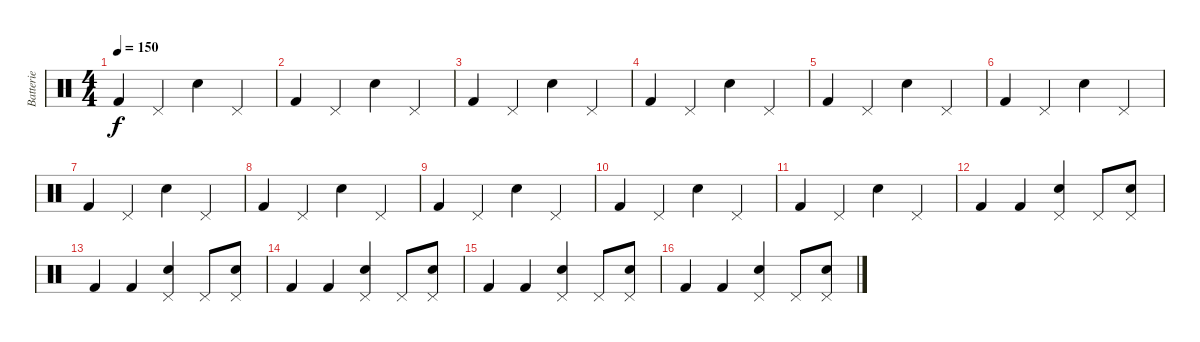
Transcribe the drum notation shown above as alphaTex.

\track ("Batterie" "Batterie") {instrument percussion}
\staff {score}
\articulation defaults
\ts (4 4)
\tempo 150
\clef neutral
\ks c "Kick (hit) 2".4{dy f} "Pedal Hi-Hat (hit)".4 "Electric Snare (hit)".4 "Pedal Hi-Hat (hit)".4
|
"Kick (hit) 2".4 "Pedal Hi-Hat (hit)".4 "Electric Snare (hit)".4 "Pedal Hi-Hat (hit)".4 |
"Kick (hit) 2".4 "Pedal Hi-Hat (hit)".4 "Electric Snare (hit)".4 "Pedal Hi-Hat (hit)".4 |
"Kick (hit) 2".4 "Pedal Hi-Hat (hit)".4 "Electric Snare (hit)".4 "Pedal Hi-Hat (hit)".4 |
"Kick (hit) 2".4 "Pedal Hi-Hat (hit)".4 "Electric Snare (hit)".4 "Pedal Hi-Hat (hit)".4 |
"Kick (hit) 2".4 "Pedal Hi-Hat (hit)".4 "Electric Snare (hit)".4 "Pedal Hi-Hat (hit)".4 |
"Kick (hit) 2".4 "Pedal Hi-Hat (hit)".4 "Electric Snare (hit)".4 "Pedal Hi-Hat (hit)".4 |
"Kick (hit) 2".4 "Pedal Hi-Hat (hit)".4 "Electric Snare (hit)".4 "Pedal Hi-Hat (hit)".4 |
"Kick (hit) 2".4 "Pedal Hi-Hat (hit)".4 "Electric Snare (hit)".4 "Pedal Hi-Hat (hit)".4 |
"Kick (hit) 2".4 "Pedal Hi-Hat (hit)".4 "Electric Snare (hit)".4 "Pedal Hi-Hat (hit)".4 |
"Kick (hit) 2".4 "Pedal Hi-Hat (hit)".4 "Electric Snare (hit)".4 "Pedal Hi-Hat (hit)".4 |
"Kick (hit) 2".4 "Kick (hit) 2".4 ("Pedal Hi-Hat (hit)" "Electric Snare (hit)").4 "Pedal Hi-Hat (hit)".8 ("Pedal Hi-Hat (hit)" "Electric Snare (hit)").8 |
"Kick (hit) 2".4 "Kick (hit) 2".4 ("Pedal Hi-Hat (hit)" "Electric Snare (hit)").4 "Pedal Hi-Hat (hit)".8 ("Pedal Hi-Hat (hit)" "Electric Snare (hit)").8 |
"Kick (hit) 2".4 "Kick (hit) 2".4 ("Pedal Hi-Hat (hit)" "Electric Snare (hit)").4 "Pedal Hi-Hat (hit)".8 ("Pedal Hi-Hat (hit)" "Electric Snare (hit)").8 |
"Kick (hit) 2".4 "Kick (hit) 2".4 ("Pedal Hi-Hat (hit)" "Electric Snare (hit)").4 "Pedal Hi-Hat (hit)".8 ("Pedal Hi-Hat (hit)" "Electric Snare (hit)").8 |
"Kick (hit) 2".4 "Kick (hit) 2".4 ("Pedal Hi-Hat (hit)" "Electric Snare (hit)").4 "Pedal Hi-Hat (hit)".8 ("Pedal Hi-Hat (hit)" "Electric Snare (hit)").8
